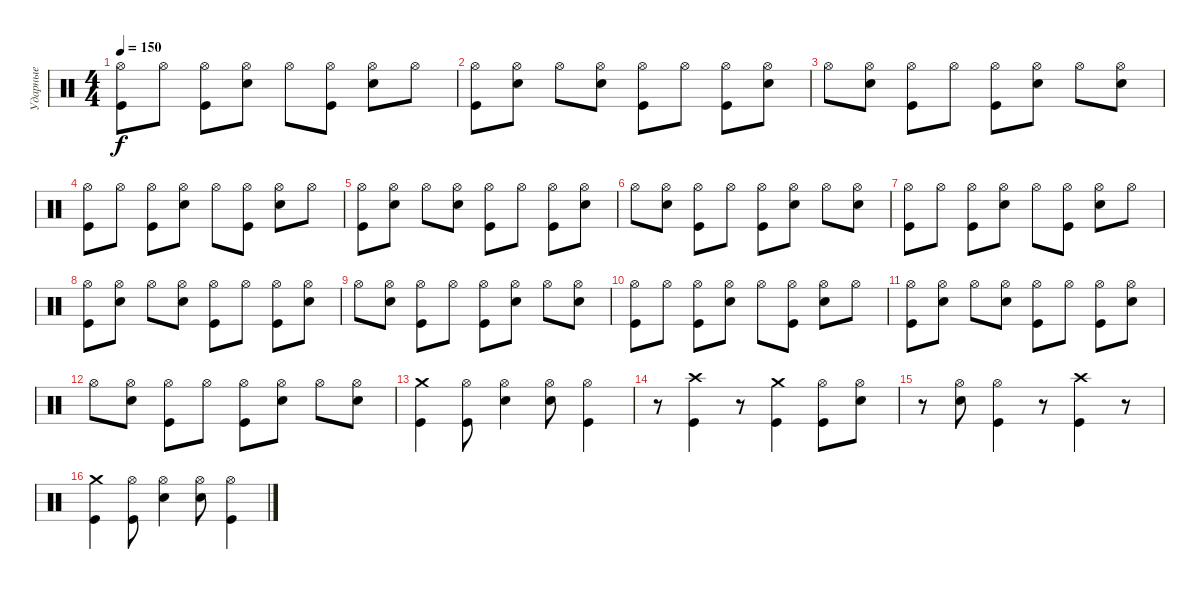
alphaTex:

\track ("Ударные" "Ударные") {instrument percussion}
\staff {score}
\articulation defaults
\ts (4 4)
\tempo 150
\clef neutral
\ks c
("Kick (hit)" "Hi-Hat (open)").8{dy f} "Hi-Hat (open)".8 ("Kick (hit)" "Hi-Hat (open)").8 ("Electric Snare (hit)" "Hi-Hat (open)").8 "Hi-Hat (open)".8 ("Kick (hit)" "Hi-Hat (open)").8 ("Electric Snare (hit)" "Hi-Hat (open)").8 "Hi-Hat (open)".8 |
("Kick (hit)" "Hi-Hat (open)").8 ("Electric Snare (hit)" "Hi-Hat (open)").8 "Hi-Hat (open)".8 ("Electric Snare (hit)" "Hi-Hat (open)").8 ("Kick (hit)" "Hi-Hat (open)").8 "Hi-Hat (open)".8 ("Kick (hit)" "Hi-Hat (open)").8 ("Electric Snare (hit)" "Hi-Hat (open)").8 |
"Hi-Hat (open)".8 ("Electric Snare (hit)" "Hi-Hat (open)").8 ("Kick (hit)" "Hi-Hat (open)").8 "Hi-Hat (open)".8 ("Kick (hit)" "Hi-Hat (open)").8 ("Electric Snare (hit)" "Hi-Hat (open)").8 "Hi-Hat (open)".8 ("Electric Snare (hit)" "Hi-Hat (open)").8 |
("Kick (hit)" "Hi-Hat (open)").8 "Hi-Hat (open)".8 ("Kick (hit)" "Hi-Hat (open)").8 ("Electric Snare (hit)" "Hi-Hat (open)").8 "Hi-Hat (open)".8 ("Kick (hit)" "Hi-Hat (open)").8 ("Electric Snare (hit)" "Hi-Hat (open)").8 "Hi-Hat (open)".8 |
("Kick (hit)" "Hi-Hat (open)").8 ("Electric Snare (hit)" "Hi-Hat (open)").8 "Hi-Hat (open)".8 ("Electric Snare (hit)" "Hi-Hat (open)").8 ("Kick (hit)" "Hi-Hat (open)").8 "Hi-Hat (open)".8 ("Kick (hit)" "Hi-Hat (open)").8 ("Electric Snare (hit)" "Hi-Hat (open)").8 |
"Hi-Hat (open)".8 ("Electric Snare (hit)" "Hi-Hat (open)").8 ("Kick (hit)" "Hi-Hat (open)").8 "Hi-Hat (open)".8 ("Kick (hit)" "Hi-Hat (open)").8 ("Electric Snare (hit)" "Hi-Hat (open)").8 "Hi-Hat (open)".8 ("Electric Snare (hit)" "Hi-Hat (open)").8 |
("Kick (hit)" "Hi-Hat (open)").8 "Hi-Hat (open)".8 ("Kick (hit)" "Hi-Hat (open)").8 ("Electric Snare (hit)" "Hi-Hat (open)").8 "Hi-Hat (open)".8 ("Kick (hit)" "Hi-Hat (open)").8 ("Electric Snare (hit)" "Hi-Hat (open)").8 "Hi-Hat (open)".8 |
("Kick (hit)" "Hi-Hat (open)").8 ("Electric Snare (hit)" "Hi-Hat (open)").8 "Hi-Hat (open)".8 ("Electric Snare (hit)" "Hi-Hat (open)").8 ("Kick (hit)" "Hi-Hat (open)").8 "Hi-Hat (open)".8 ("Kick (hit)" "Hi-Hat (open)").8 ("Electric Snare (hit)" "Hi-Hat (open)").8 |
"Hi-Hat (open)".8 ("Electric Snare (hit)" "Hi-Hat (open)").8 ("Kick (hit)" "Hi-Hat (open)").8 "Hi-Hat (open)".8 ("Kick (hit)" "Hi-Hat (open)").8 ("Electric Snare (hit)" "Hi-Hat (open)").8 "Hi-Hat (open)".8 ("Electric Snare (hit)" "Hi-Hat (open)").8 |
("Kick (hit)" "Hi-Hat (open)").8 "Hi-Hat (open)".8 ("Kick (hit)" "Hi-Hat (open)").8 ("Electric Snare (hit)" "Hi-Hat (open)").8 "Hi-Hat (open)".8 ("Kick (hit)" "Hi-Hat (open)").8 ("Electric Snare (hit)" "Hi-Hat (open)").8 "Hi-Hat (open)".8 |
("Kick (hit)" "Hi-Hat (open)").8 ("Electric Snare (hit)" "Hi-Hat (open)").8 "Hi-Hat (open)".8 ("Electric Snare (hit)" "Hi-Hat (open)").8 ("Kick (hit)" "Hi-Hat (open)").8 "Hi-Hat (open)".8 ("Kick (hit)" "Hi-Hat (open)").8 ("Electric Snare (hit)" "Hi-Hat (open)").8 |
"Hi-Hat (open)".8 ("Electric Snare (hit)" "Hi-Hat (open)").8 ("Kick (hit)" "Hi-Hat (open)").8 "Hi-Hat (open)".8 ("Kick (hit)" "Hi-Hat (open)").8 ("Electric Snare (hit)" "Hi-Hat (open)").8 "Hi-Hat (open)".8 ("Electric Snare (hit)" "Hi-Hat (open)").8 |
("Kick (hit)" "Crash medium (hit)").4 ("Kick (hit)" "Hi-Hat (open)").8 ("Electric Snare (hit)" "Hi-Hat (open)").4 ("Electric Snare (hit)" "Hi-Hat (open)").8 ("Kick (hit)" "Hi-Hat (open)").4 |
r.8 ("Kick (hit)" "Crash high (hit)").4 r.8 ("Kick (hit)" "Crash medium (hit)").4 ("Kick (hit)" "Hi-Hat (open)").8 ("Electric Snare (hit)" "Hi-Hat (open)").8 |
r.8 ("Electric Snare (hit)" "Hi-Hat (open)").8 ("Kick (hit)" "Hi-Hat (open)").4 r.8 ("Kick (hit)" "Crash high (hit)").4 r.8 |
("Kick (hit)" "Crash medium (hit)").4 ("Kick (hit)" "Hi-Hat (open)").8 ("Electric Snare (hit)" "Hi-Hat (open)").4 ("Electric Snare (hit)" "Hi-Hat (open)").8 ("Kick (hit)" "Hi-Hat (open)").4
